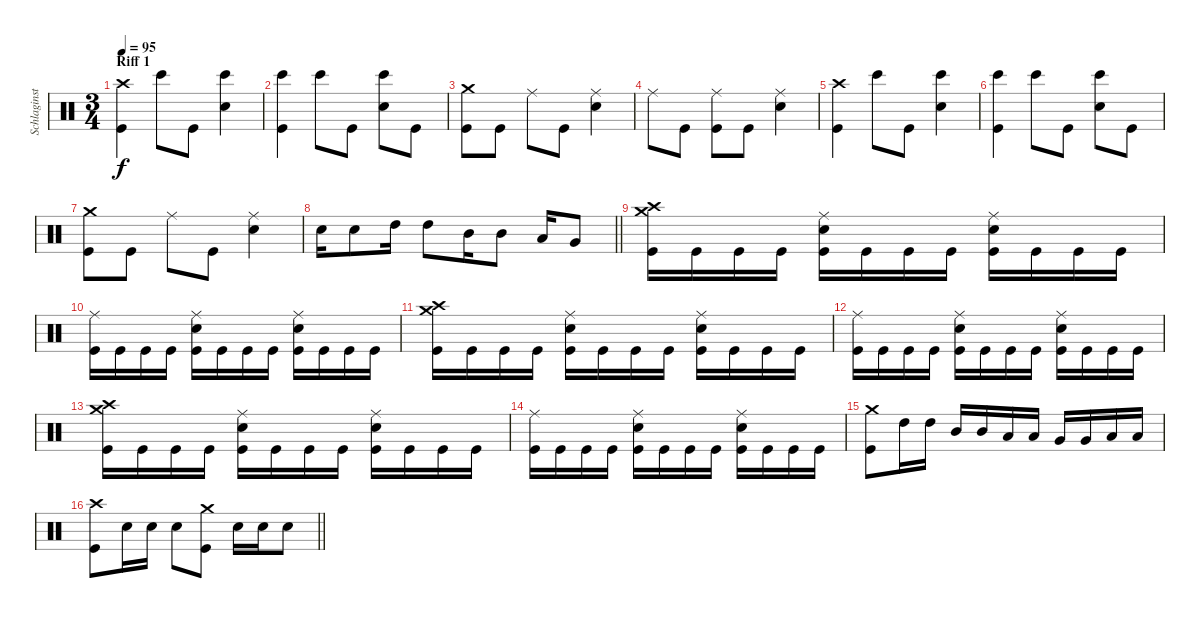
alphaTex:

\track ("Schlaginstrumente - Auswahl" "Schlaginst") {instrument percussion}
\staff {score}
\articulation defaults
\ts (3 4)
\section ("" "Riff 1")
\tempo 95
\clef neutral
\ks c
("Crash high (hit)" "Kick (hit)").4{dy f} "Bongo High (hit)".8 "Kick (hit)".8 ("Snare (hit) 2" "Bongo High (hit)").4 |
("Bongo High (hit)" "Kick (hit)").4 "Bongo High (hit)".8 "Kick (hit)".8 ("Snare (hit) 2" "Bongo High (hit)").8 "Kick (hit)".8 |
("Crash medium (hit)" "Kick (hit)").8 "Kick (hit)".8 "Ride (middle)".8 "Kick (hit)".8 ("Snare (hit) 2" "Ride (middle)").4 |
"Ride (middle)".8 "Kick (hit)".8 ("Kick (hit)" "Ride (middle)").8 "Kick (hit)".8 ("Snare (hit) 2" "Ride (middle)").4 |
("Crash high (hit)" "Kick (hit)").4 "Bongo High (hit)".8 "Kick (hit)".8 ("Snare (hit) 2" "Bongo High (hit)").4 |
("Bongo High (hit)" "Kick (hit)").4 "Bongo High (hit)".8 "Kick (hit)".8 ("Snare (hit) 2" "Bongo High (hit)").8 "Kick (hit)".8 |
("Crash medium (hit)" "Kick (hit)").8 "Kick (hit)".8 "Ride (middle)".8 "Kick (hit)".8 ("Snare (hit) 2" "Ride (middle)").4 |
\barLineRight lightlight "Snare (hit) 2".16 "Snare (hit) 2".8 "High Tom (hit)".16 "High Tom (hit)".8 "Mid Tom (hit)".16 "Mid Tom (hit)".8 "Low Tom (hit)".16 "Very Low Tom (hit)".8
|
("Crash medium (hit)" "Crash high (hit)" "Kick (hit)").16 "Kick (hit)".16 "Kick (hit)".16 "Kick (hit)".16 ("Ride (middle)" "Snare (hit) 2" "Kick (hit)").16 "Kick (hit)".16 "Kick (hit)".16 "Kick (hit)".16 ("Ride (middle)" "Snare (hit) 2" "Kick (hit)").16 "Kick (hit)".16 "Kick (hit)".16 "Kick (hit)".16 |
("Ride (middle)" "Kick (hit)").16 "Kick (hit)".16 "Kick (hit)".16 "Kick (hit)".16 ("Ride (middle)" "Snare (hit) 2" "Kick (hit)").16 "Kick (hit)".16 "Kick (hit)".16 "Kick (hit)".16 ("Ride (middle)" "Snare (hit) 2" "Kick (hit)").16 "Kick (hit)".16 "Kick (hit)".16 "Kick (hit)".16 |
("Crash medium (hit)" "Crash high (hit)" "Kick (hit)").16 "Kick (hit)".16 "Kick (hit)".16 "Kick (hit)".16 ("Ride (middle)" "Snare (hit) 2" "Kick (hit)").16 "Kick (hit)".16 "Kick (hit)".16 "Kick (hit)".16 ("Ride (middle)" "Snare (hit) 2" "Kick (hit)").16 "Kick (hit)".16 "Kick (hit)".16 "Kick (hit)".16 |
("Ride (middle)" "Kick (hit)").16 "Kick (hit)".16 "Kick (hit)".16 "Kick (hit)".16 ("Ride (middle)" "Snare (hit) 2" "Kick (hit)").16 "Kick (hit)".16 "Kick (hit)".16 "Kick (hit)".16 ("Ride (middle)" "Snare (hit) 2" "Kick (hit)").16 "Kick (hit)".16 "Kick (hit)".16 "Kick (hit)".16 |
("Crash medium (hit)" "Crash high (hit)" "Kick (hit)").16 "Kick (hit)".16 "Kick (hit)".16 "Kick (hit)".16 ("Ride (middle)" "Snare (hit) 2" "Kick (hit)").16 "Kick (hit)".16 "Kick (hit)".16 "Kick (hit)".16 ("Ride (middle)" "Snare (hit) 2" "Kick (hit)").16 "Kick (hit)".16 "Kick (hit)".16 "Kick (hit)".16 |
("Ride (middle)" "Kick (hit)").16 "Kick (hit)".16 "Kick (hit)".16 "Kick (hit)".16 ("Ride (middle)" "Snare (hit) 2" "Kick (hit)").16 "Kick (hit)".16 "Kick (hit)".16 "Kick (hit)".16 ("Ride (middle)" "Snare (hit) 2" "Kick (hit)").16 "Kick (hit)".16 "Kick (hit)".16 "Kick (hit)".16 |
("Kick (hit)" "Crash medium (hit)").8 "High Tom (hit)".16 "High Tom (hit)".16 "Mid Tom (hit)".16 "Mid Tom (hit)".16 "Low Tom (hit)".16 "Low Tom (hit)".16 "Very Low Tom (hit)".16 "Very Low Tom (hit)".16 "Low Floor Tom (hit)".16 "Low Floor Tom (hit)".16 |
\barLineRight lightlight
("Crash high (hit)" "Kick (hit)").8 "Snare (hit) 2".16 "Snare (hit) 2".16 "Snare (hit) 2".8 ("Kick (hit)" "Crash medium (hit)").8 "Snare (hit) 2".16 "Snare (hit) 2".16 "Snare (hit) 2".8
